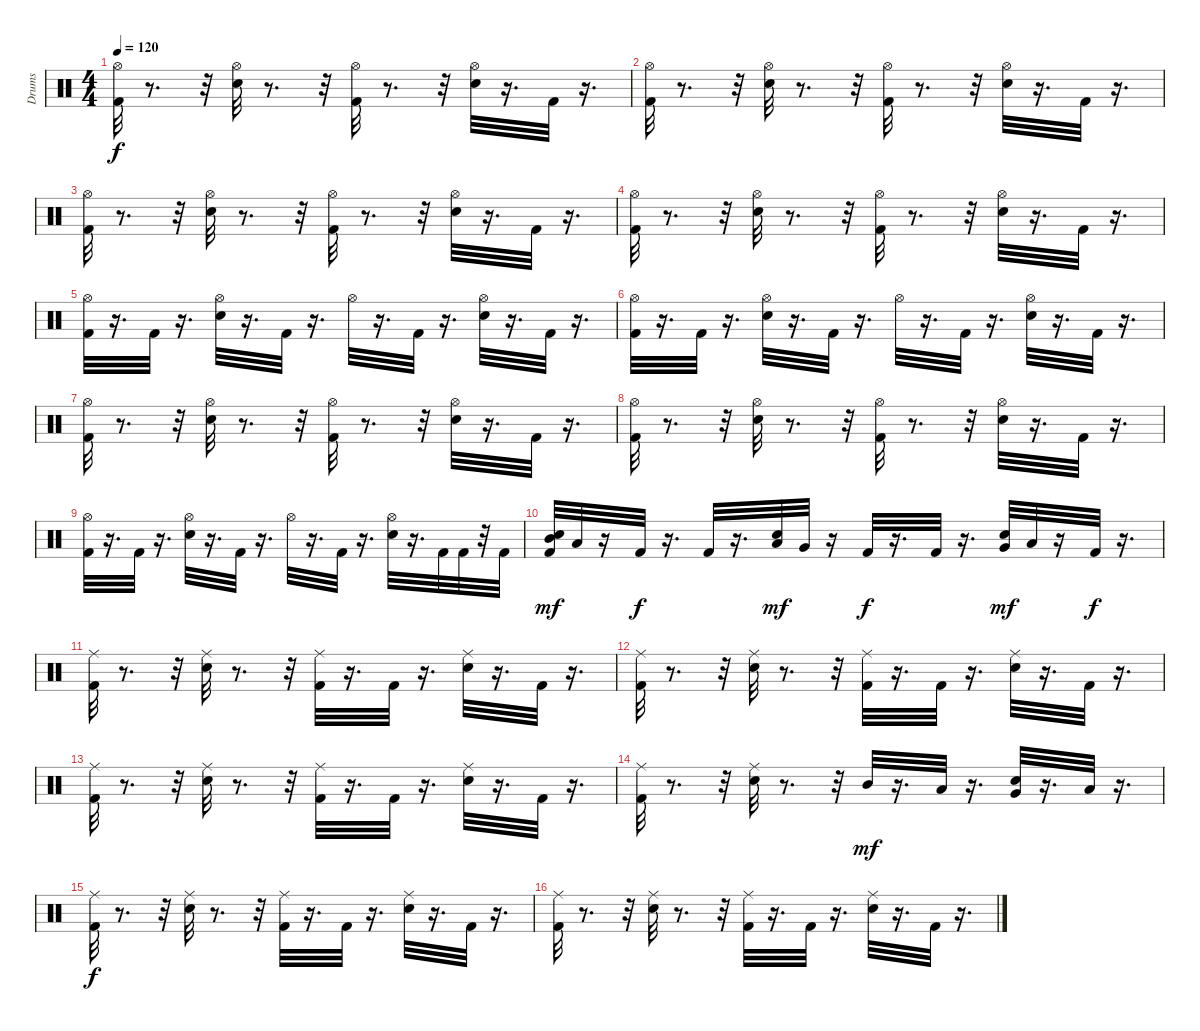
\track ("Drums" "Drums") {instrument percussion}
\staff {score}
\articulation defaults
\ts (4 4)
\tempo 120
\clef neutral
\ks c
("Kick (hit) 2" "Hi-Hat (open)").32{dy f} r.8{d} r.32 ("Snare (hit) 2" "Hi-Hat (open)").32 r.8{d} r.32 ("Kick (hit) 2" "Hi-Hat (open)").32 r.8{d} r.32 ("Snare (hit) 2" "Hi-Hat (open)").32 r.16{d} "Kick (hit) 2".32 r.16{d} |
("Kick (hit) 2" "Hi-Hat (open)").32 r.8{d} r.32 ("Snare (hit) 2" "Hi-Hat (open)").32 r.8{d} r.32 ("Kick (hit) 2" "Hi-Hat (open)").32 r.8{d} r.32 ("Snare (hit) 2" "Hi-Hat (open)").32 r.16{d} "Kick (hit) 2".32 r.16{d} |
("Kick (hit) 2" "Hi-Hat (open)").32 r.8{d} r.32 ("Snare (hit) 2" "Hi-Hat (open)").32 r.8{d} r.32 ("Kick (hit) 2" "Hi-Hat (open)").32 r.8{d} r.32 ("Snare (hit) 2" "Hi-Hat (open)").32 r.16{d} "Kick (hit) 2".32 r.16{d} |
("Kick (hit) 2" "Hi-Hat (open)").32 r.8{d} r.32 ("Snare (hit) 2" "Hi-Hat (open)").32 r.8{d} r.32 ("Kick (hit) 2" "Hi-Hat (open)").32 r.8{d} r.32 ("Snare (hit) 2" "Hi-Hat (open)").32 r.16{d} "Kick (hit) 2".32 r.16{d} |
("Kick (hit) 2" "Hi-Hat (open)").32 r.16{d} "Kick (hit) 2".32 r.16{d} ("Snare (hit) 2" "Hi-Hat (open)").32 r.16{d} "Kick (hit) 2".32 r.16{d} "Hi-Hat (open)".32 r.16{d} "Kick (hit) 2".32 r.16{d} ("Snare (hit) 2" "Hi-Hat (open)").32 r.16{d} "Kick (hit) 2".32 r.16{d} |
("Kick (hit) 2" "Hi-Hat (open)").32 r.16{d} "Kick (hit) 2".32 r.16{d} ("Snare (hit) 2" "Hi-Hat (open)").32 r.16{d} "Kick (hit) 2".32 r.16{d} "Hi-Hat (open)".32 r.16{d} "Kick (hit) 2".32 r.16{d} ("Snare (hit) 2" "Hi-Hat (open)").32 r.16{d} "Kick (hit) 2".32 r.16{d} |
("Kick (hit) 2" "Hi-Hat (open)").32 r.8{d} r.32 ("Snare (hit) 2" "Hi-Hat (open)").32 r.8{d} r.32 ("Kick (hit) 2" "Hi-Hat (open)").32 r.8{d} r.32 ("Snare (hit) 2" "Hi-Hat (open)").32 r.16{d} "Kick (hit) 2".32 r.16{d} |
("Kick (hit) 2" "Hi-Hat (open)").32 r.8{d} r.32 ("Snare (hit) 2" "Hi-Hat (open)").32 r.8{d} r.32 ("Kick (hit) 2" "Hi-Hat (open)").32 r.8{d} r.32 ("Snare (hit) 2" "Hi-Hat (open)").32 r.16{d} "Kick (hit) 2".32 r.16{d} |
("Kick (hit) 2" "Hi-Hat (open)").32 r.16{d} "Kick (hit) 2".32 r.16{d} ("Snare (hit) 2" "Hi-Hat (open)").32 r.16{d} "Kick (hit) 2".32 r.16{d} "Hi-Hat (open)".32 r.16{d} "Kick (hit) 2".32 r.16{d} ("Snare (hit) 2" "Hi-Hat (open)").32 r.16{d} "Kick (hit) 2".32 "Kick (hit) 2".32 r.32 "Kick (hit) 2".32 |
("Kick (hit) 2" "Snare (hit) 2" "Mid Tom (hit)").32{dy mf} "Low Tom (hit)".32 r.16 "Kick (hit) 2".32{dy f} r.16{d} "Kick (hit) 2".32 r.16{d} ("Snare (hit) 2" "Low Tom (hit)").32{dy mf} "Very Low Tom (hit)".32 r.16 "Kick (hit) 2".32{dy f} r.16{d} "Kick (hit) 2".32 r.16{d} ("Snare (hit) 2" "Very Low Tom (hit)").32{dy mf} "Low Floor Tom (hit)".32 r.16 "Kick (hit) 2".32{dy f} r.16{d} |
("Kick (hit) 2" "Ride (middle)").32 r.8{d} r.32 ("Snare (hit) 2" "Ride (middle)").32 r.8{d} r.32 ("Kick (hit) 2" "Ride (middle)").32 r.16{d} "Kick (hit) 2".32 r.16{d} ("Snare (hit) 2" "Ride (middle)").32 r.16{d} "Kick (hit) 2".32 r.16{d} |
("Kick (hit) 2" "Ride (middle)").32 r.8{d} r.32 ("Snare (hit) 2" "Ride (middle)").32 r.8{d} r.32 ("Kick (hit) 2" "Ride (middle)").32 r.16{d} "Kick (hit) 2".32 r.16{d} ("Snare (hit) 2" "Ride (middle)").32 r.16{d} "Kick (hit) 2".32 r.16{d} |
("Kick (hit) 2" "Ride (middle)").32 r.8{d} r.32 ("Snare (hit) 2" "Ride (middle)").32 r.8{d} r.32 ("Kick (hit) 2" "Ride (middle)").32 r.16{d} "Kick (hit) 2".32 r.16{d} ("Snare (hit) 2" "Ride (middle)").32 r.16{d} "Kick (hit) 2".32 r.16{d} |
("Kick (hit) 2" "Ride (middle)").32 r.8{d} r.32 ("Snare (hit) 2" "Ride (middle)").32 r.8{d} r.32 "Mid Tom (hit)".32{dy mf} r.16{d} "Low Tom (hit)".32 r.16{d} ("Snare (hit) 2" "Very Low Tom (hit)").32 r.16{d} "Low Floor Tom (hit)".32 r.16{d} |
("Kick (hit) 2" "Ride (middle)").32{dy f} r.8{d} r.32 ("Snare (hit) 2" "Ride (middle)").32 r.8{d} r.32 ("Kick (hit) 2" "Ride (middle)").32 r.16{d} "Kick (hit) 2".32 r.16{d} ("Snare (hit) 2" "Ride (middle)").32 r.16{d} "Kick (hit) 2".32 r.16{d} |
("Kick (hit) 2" "Ride (middle)").32 r.8{d} r.32 ("Snare (hit) 2" "Ride (middle)").32 r.8{d} r.32 ("Kick (hit) 2" "Ride (middle)").32 r.16{d} "Kick (hit) 2".32 r.16{d} ("Snare (hit) 2" "Ride (middle)").32 r.16{d} "Kick (hit) 2".32 r.16{d}
